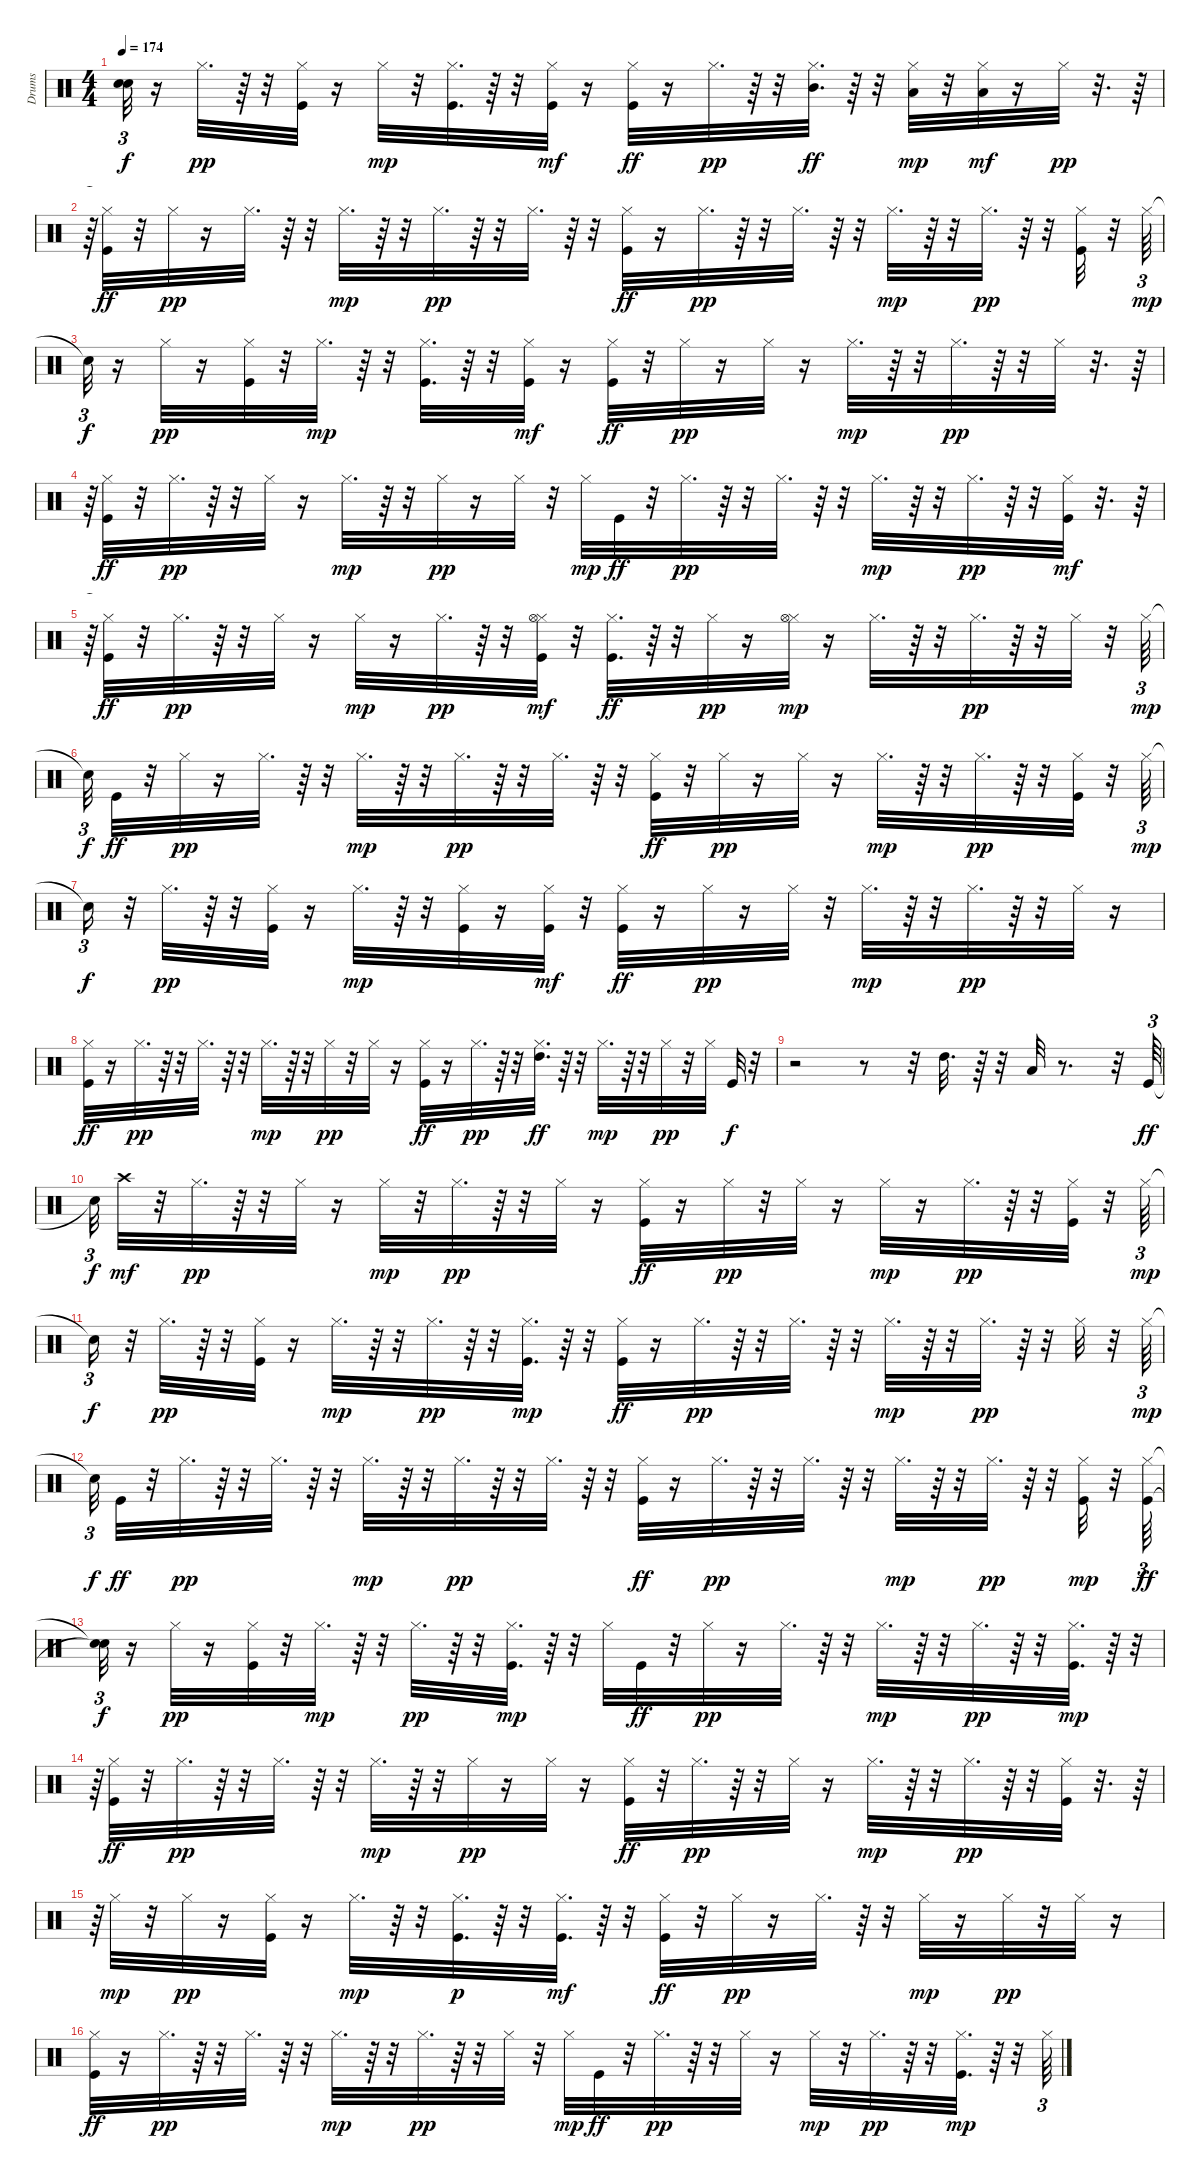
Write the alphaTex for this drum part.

\track ("Drums" "Drums") {instrument percussion}
\staff {score}
\articulation defaults
\ts (4 4)
\tempo 174
\clef neutral
\ks c
("Snare (hit)"{t} "Snare (hit)"{t}).32{tu (3 2) dy f} r.16 "Hi-Hat (closed)".32{d dy pp} r.64 r.32 ("Hi-Hat (closed)" "Kick (hit)").32 r.16 "Hi-Hat (closed)".32{dy mp} r.32 ("Hi-Hat (closed)" "Kick (hit)").32{d} r.64 r.32 ("Hi-Hat (closed)" "Kick (hit)").32{dy mf} r.16 ("Hi-Hat (closed)" "Kick (hit)").32{dy ff} r.16 "Hi-Hat (closed)".32{d dy pp} r.64 r.32 ("Hi-Hat (closed)" "Mid Tom (hit)").32{d dy ff} r.64 r.32 ("Hi-Hat (closed)" "Low Tom (hit)").32{dy mp} r.32 ("Hi-Hat (closed)" "Low Tom (hit)").32{dy mf} r.16 "Hi-Hat (closed)".32{dy pp} r.32{d} r.64 |
r.64{tu (3 2)} ("Hi-Hat (closed)" "Kick (hit)").32{dy ff} r.32 "Hi-Hat (closed)".32{dy pp} r.16 "Hi-Hat (closed)".32{d} r.64 r.32 "Hi-Hat (closed)".32{d dy mp} r.64 r.32 "Hi-Hat (closed)".32{d dy pp} r.64 r.32 "Hi-Hat (closed)".32{d} r.64 r.32 ("Hi-Hat (closed)" "Kick (hit)").32{dy ff} r.16 "Hi-Hat (closed)".32{d dy pp} r.64 r.32 "Hi-Hat (closed)".32{d} r.64 r.32 "Hi-Hat (closed)".32{d dy mp} r.64 r.32 "Hi-Hat (closed)".32{d dy pp} r.64 r.32 ("Hi-Hat (closed)" "Kick (hit)").32 r.32 "Hi-Hat (closed)".64{tu (3 2) dy mp} |
"Snare (hit)"{t}.32{tu (3 2) dy f} r.16 "Hi-Hat (closed)".32{dy pp} r.16 ("Hi-Hat (closed)" "Kick (hit)").32 r.32 "Hi-Hat (closed)".32{d dy mp} r.64 r.32 ("Hi-Hat (closed)" "Kick (hit)").32{d} r.64 r.32 ("Hi-Hat (closed)" "Kick (hit)").32{dy mf} r.16 ("Hi-Hat (closed)" "Kick (hit)").32{dy ff} r.32 "Hi-Hat (closed)".32{dy pp} r.16 "Hi-Hat (closed)".32 r.16 "Hi-Hat (closed)".32{d dy mp} r.64 r.32 "Hi-Hat (closed)".32{d dy pp} r.64 r.32 "Hi-Hat (closed)".32 r.32{d} r.64 |
r.64{tu (3 2)} ("Hi-Hat (closed)" "Kick (hit)").32{dy ff} r.32 "Hi-Hat (closed)".32{d dy pp} r.64 r.32 "Hi-Hat (closed)".32 r.16 "Hi-Hat (closed)".32{d dy mp} r.64 r.32 "Hi-Hat (closed)".32{dy pp} r.16 "Hi-Hat (closed)".32 r.32 "Hi-Hat (closed)".32{dy mp} "Kick (hit)".32{dy ff} r.32 "Hi-Hat (closed)".32{d dy pp} r.64 r.32 "Hi-Hat (closed)".32{d} r.64 r.32 "Hi-Hat (closed)".32{d dy mp} r.64 r.32 "Hi-Hat (closed)".32{d dy pp} r.64 r.32 ("Hi-Hat (closed)" "Kick (hit)").32{dy mf} r.32{d} r.64 |
r.64{tu (3 2)} ("Hi-Hat (closed)" "Kick (hit)").32{dy ff} r.32 "Hi-Hat (closed)".32{d dy pp} r.64 r.32 "Hi-Hat (closed)".32 r.16 "Hi-Hat (closed)".32{dy mp} r.16 "Hi-Hat (closed)".32{d dy pp} r.64 r.32 ("Hi-Hat (closed)" "Kick (hit)" "Hi-Hat (open)").32{dy mf} r.32 ("Hi-Hat (closed)" "Kick (hit)").32{d dy ff} r.64 r.32 "Hi-Hat (closed)".32{dy pp} r.16 ("Hi-Hat (closed)" "Hi-Hat (open)").32{dy mp} r.16 "Hi-Hat (closed)".32{d} r.64 r.32 "Hi-Hat (closed)".32{d dy pp} r.64 r.32 "Hi-Hat (closed)".32 r.32 "Hi-Hat (closed)".64{tu (3 2) dy mp} |
"Snare (hit)"{t}.32{tu (3 2) dy f} "Kick (hit)".32{dy ff} r.32 "Hi-Hat (closed)".32{dy pp} r.16 "Hi-Hat (closed)".32{d} r.64 r.32 "Hi-Hat (closed)".32{d dy mp} r.64 r.32 "Hi-Hat (closed)".32{d dy pp} r.64 r.32 "Hi-Hat (closed)".32{d} r.64 r.32 ("Hi-Hat (closed)" "Kick (hit)").32{dy ff} r.32 "Hi-Hat (closed)".32{dy pp} r.16 "Hi-Hat (closed)".32 r.16 "Hi-Hat (closed)".32{d dy mp} r.64 r.32 "Hi-Hat (closed)".32{d dy pp} r.64 r.32 ("Hi-Hat (closed)" "Kick (hit)").32 r.32 "Hi-Hat (closed)".64{tu (3 2) dy mp} |
"Snare (hit)"{t}.16{tu (3 2) dy f} r.32 "Hi-Hat (closed)".32{d dy pp} r.64 r.32 ("Hi-Hat (closed)" "Kick (hit)").32 r.16 "Hi-Hat (closed)".32{d dy mp} r.64 r.32 ("Hi-Hat (closed)" "Kick (hit)").32 r.16 ("Hi-Hat (closed)" "Kick (hit)").32{dy mf} r.32 ("Hi-Hat (closed)" "Kick (hit)").32{dy ff} r.16 "Hi-Hat (closed)".32{dy pp} r.16 "Hi-Hat (closed)".32 r.32 "Hi-Hat (closed)".32{d dy mp} r.64 r.32 "Hi-Hat (closed)".32{d dy pp} r.64 r.32 "Hi-Hat (closed)".32 r.16 |
("Hi-Hat (closed)" "Kick (hit)").32{dy ff} r.16 "Hi-Hat (closed)".32{d dy pp} r.64 r.32 "Hi-Hat (closed)".32{d} r.64 r.32 "Hi-Hat (closed)".32{d dy mp} r.64 r.32 "Hi-Hat (closed)".32{dy pp} r.32 "Hi-Hat (closed)".32 r.16 ("Hi-Hat (closed)" "Kick (hit)").32{dy ff} r.16 "Hi-Hat (closed)".32{d dy pp} r.64 r.32 ("Hi-Hat (closed)" "High Tom (hit)").32{d dy ff} r.64 r.32 "Hi-Hat (closed)".32{d dy mp} r.64 r.32 "Hi-Hat (closed)".32{dy pp} r.32 "Hi-Hat (closed)".32 "Kick (hit)".32{dy f} r.32 |
r.2 r.8 r.32 "High Tom (hit)".32{d} r.64 r.32 "Low Tom (hit)".32 r.8{d} r.32 "Kick (hit)".64{tu (3 2) dy ff} |
"Snare (hit)"{t}.32{tu (3 2) dy f} "Crash high (hit)".32{dy mf} r.32 "Hi-Hat (closed)".32{d dy pp} r.64 r.32 "Hi-Hat (closed)".32 r.16 "Hi-Hat (closed)".32{dy mp} r.32 "Hi-Hat (closed)".32{d dy pp} r.64 r.32 "Hi-Hat (closed)".32 r.16 ("Hi-Hat (closed)" "Kick (hit)").32{dy ff} r.16 "Hi-Hat (closed)".32{dy pp} r.32 "Hi-Hat (closed)".32 r.16 "Hi-Hat (closed)".32{dy mp} r.16 "Hi-Hat (closed)".32{d dy pp} r.64 r.32 ("Hi-Hat (closed)" "Kick (hit)").32 r.32 "Hi-Hat (closed)".64{tu (3 2) dy mp} |
"Snare (hit)"{t}.16{tu (3 2) dy f} r.32 "Hi-Hat (closed)".32{d dy pp} r.64 r.32 ("Hi-Hat (closed)" "Kick (hit)").32 r.16 "Hi-Hat (closed)".32{d dy mp} r.64 r.32 "Hi-Hat (closed)".32{d dy pp} r.64 r.32 ("Hi-Hat (closed)" "Kick (hit)").32{d dy mp} r.64 r.32 ("Hi-Hat (closed)" "Kick (hit)").32{dy ff} r.16 "Hi-Hat (closed)".32{d dy pp} r.64 r.32 "Hi-Hat (closed)".32{d} r.64 r.32 "Hi-Hat (closed)".32{d dy mp} r.64 r.32 "Hi-Hat (closed)".32{d dy pp} r.64 r.32 "Hi-Hat (closed)".32 r.32 "Hi-Hat (closed)".64{tu (3 2) dy mp} |
"Snare (hit)"{t}.32{tu (3 2) dy f} "Kick (hit)".32{dy ff} r.32 "Hi-Hat (closed)".32{d dy pp} r.64 r.32 "Hi-Hat (closed)".32{d} r.64 r.32 "Hi-Hat (closed)".32{d dy mp} r.64 r.32 "Hi-Hat (closed)".32{d dy pp} r.64 r.32 "Hi-Hat (closed)".32{d} r.64 r.32 ("Hi-Hat (closed)" "Kick (hit)").32{dy ff} r.16 "Hi-Hat (closed)".32{d dy pp} r.64 r.32 "Hi-Hat (closed)".32{d} r.64 r.32 "Hi-Hat (closed)".32{d dy mp} r.64 r.32 "Hi-Hat (closed)".32{d dy pp} r.64 r.32 ("Hi-Hat (closed)" "Kick (hit)").32{dy mp} r.32 ("Hi-Hat (closed)" "Kick (hit)").64{tu (3 2) dy ff} |
("Snare (hit)"{t} "Snare (hit)"{t}).32{tu (3 2) dy f} r.16 "Hi-Hat (closed)".32{dy pp} r.16 ("Hi-Hat (closed)" "Kick (hit)").32 r.32 "Hi-Hat (closed)".32{d dy mp} r.64 r.32 "Hi-Hat (closed)".32{d dy pp} r.64 r.32 ("Hi-Hat (closed)" "Kick (hit)").32{d dy mp} r.64 r.32 "Hi-Hat (closed)".32 "Kick (hit)".32{dy ff} r.32 "Hi-Hat (closed)".32{dy pp} r.16 "Hi-Hat (closed)".32{d} r.64 r.32 "Hi-Hat (closed)".32{d dy mp} r.64 r.32 "Hi-Hat (closed)".32{d dy pp} r.64 r.32 ("Hi-Hat (closed)" "Kick (hit)").32{d dy mp} r.64 r.32{tu (3 2)} |
r.64{tu (3 2)} ("Hi-Hat (closed)" "Kick (hit)").32{dy ff} r.32 "Hi-Hat (closed)".32{d dy pp} r.64 r.32 "Hi-Hat (closed)".32{d} r.64 r.32 "Hi-Hat (closed)".32{d dy mp} r.64 r.32 "Hi-Hat (closed)".32{dy pp} r.16 "Hi-Hat (closed)".32 r.16 ("Hi-Hat (closed)" "Kick (hit)").32{dy ff} r.32 "Hi-Hat (closed)".32{d dy pp} r.64 r.32 "Hi-Hat (closed)".32 r.16 "Hi-Hat (closed)".32{d dy mp} r.64 r.32 "Hi-Hat (closed)".32{d dy pp} r.64 r.32 ("Hi-Hat (closed)" "Kick (hit)").32 r.32{d} r.64 |
r.64{tu (3 2)} "Hi-Hat (closed)".32{dy mp} r.32 "Hi-Hat (closed)".32{dy pp} r.16 ("Hi-Hat (closed)" "Kick (hit)").32 r.16 "Hi-Hat (closed)".32{d dy mp} r.64 r.32 ("Hi-Hat (closed)" "Kick (hit)").32{d dy p} r.64 r.32 ("Hi-Hat (closed)" "Kick (hit)").32{d dy mf} r.64 r.32 ("Hi-Hat (closed)" "Kick (hit)").32{dy ff} r.32 "Hi-Hat (closed)".32{dy pp} r.16 "Hi-Hat (closed)".32{d} r.64 r.32 "Hi-Hat (closed)".32{dy mp} r.16 "Hi-Hat (closed)".32{dy pp} r.32 "Hi-Hat (closed)".32 r.16 |
("Hi-Hat (closed)" "Kick (hit)").32{dy ff} r.16 "Hi-Hat (closed)".32{d dy pp} r.64 r.32 "Hi-Hat (closed)".32{d} r.64 r.32 "Hi-Hat (closed)".32{d dy mp} r.64 r.32 "Hi-Hat (closed)".32{d dy pp} r.64 r.32 "Hi-Hat (closed)".32 r.32 "Hi-Hat (closed)".32{dy mp} "Kick (hit)".32{dy ff} r.32 "Hi-Hat (closed)".32{d dy pp} r.64 r.32 "Hi-Hat (closed)".32 r.16 "Hi-Hat (closed)".32{dy mp} r.32 "Hi-Hat (closed)".32{d dy pp} r.64 r.32 ("Hi-Hat (closed)" "Kick (hit)").32{d dy mp} r.64 r.32 "Hi-Hat (closed)".64{tu (3 2)}
